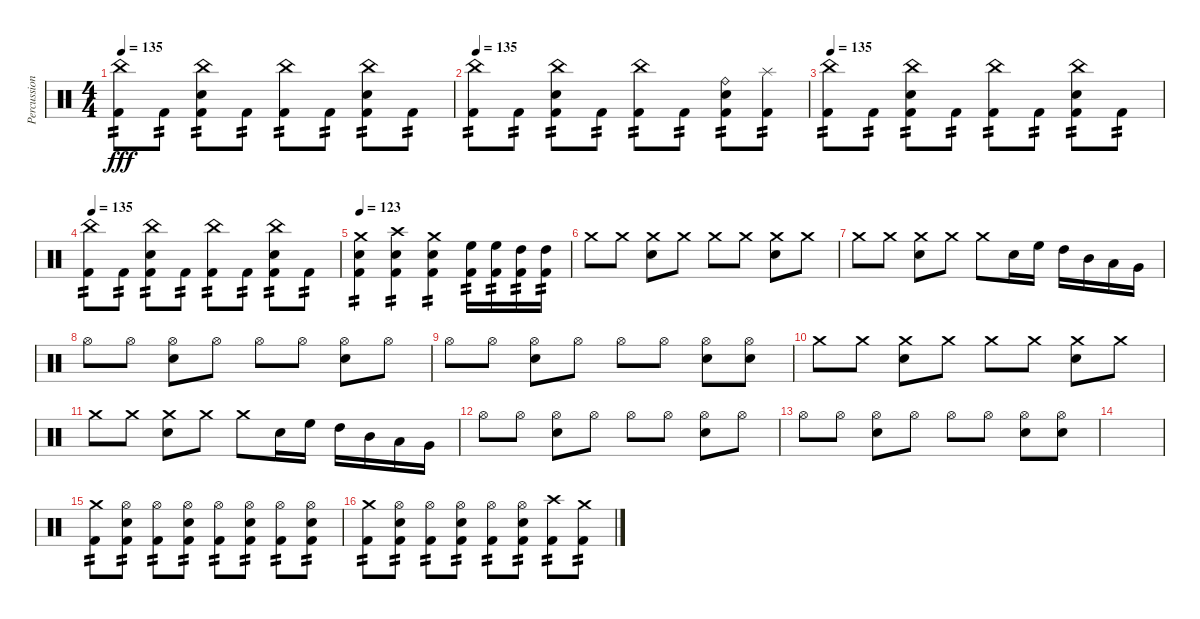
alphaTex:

\track ("Percussion" "Percussion") {solo instrument percussion}
\staff {score}
\articulation defaults
\ts (4 4)
\tempo 135
\clef neutral
\ks c
("China (hit)" "Kick (hit) 2").8{tp 2 dy fff} "Kick (hit) 2".8{tp 2} ("China (hit)" "Electric Snare (hit)" "Kick (hit) 2").8{tp 2} "Kick (hit) 2".8{tp 2} ("China (hit)" "Kick (hit) 2").8{tp 2} "Kick (hit) 2".8{tp 2} ("China (hit)" "Electric Snare (hit)" "Kick (hit) 2").8{tp 2} "Kick (hit) 2".8{tp 2} |
\tempo 135
("China (hit)" "Kick (hit) 2").8{tp 2} "Kick (hit) 2".8{tp 2} ("China (hit)" "Electric Snare (hit)" "Kick (hit) 2").8{tp 2} "Kick (hit) 2".8{tp 2} ("China (hit)" "Kick (hit) 2").8{tp 2} "Kick (hit) 2".8{tp 2} ("Ride (bell)" "Electric Snare (hit)" "Kick (hit) 2").8{tp 2} ("Splash (hit)" "Kick (hit) 2").8{tp 2} |
\tempo 135
("China (hit)" "Kick (hit) 2").8{tp 2} "Kick (hit) 2".8{tp 2} ("China (hit)" "Electric Snare (hit)" "Kick (hit) 2").8{tp 2} "Kick (hit) 2".8{tp 2} ("China (hit)" "Kick (hit) 2").8{tp 2} "Kick (hit) 2".8{tp 2} ("China (hit)" "Electric Snare (hit)" "Kick (hit) 2").8{tp 2} "Kick (hit) 2".8{tp 2} |
\tempo 135
("China (hit)" "Kick (hit) 2").8{tp 2} "Kick (hit) 2".8{tp 2} ("China (hit)" "Electric Snare (hit)" "Kick (hit) 2").8{tp 2} "Kick (hit) 2".8{tp 2} ("China (hit)" "Kick (hit) 2").8{tp 2} "Kick (hit) 2".8{tp 2} ("China (hit)" "Electric Snare (hit)" "Kick (hit) 2").8{tp 2} "Kick (hit) 2".8{tp 2} |
\tempo 123
("Electric Snare (hit)" "Crash medium (hit)" "Kick (hit) 2").4{tp 2} ("Electric Snare (hit)" "Crash high (hit)" "Kick (hit) 2").4{tp 2} ("Electric Snare (hit)" "Crash medium (hit)" "Kick (hit) 2").4{tp 2} ("High Floor Tom (hit)" "Kick (hit) 2").16{tp 2} ("High Floor Tom (hit)" "Kick (hit) 2").16{tp 2} ("High Tom (hit)" "Kick (hit) 2").16{tp 2} ("High Tom (hit)" "Kick (hit) 2").16{tp 2} |
"Crash medium (hit)".8 "Crash medium (hit)".8 ("Crash medium (hit)" "Electric Snare (hit)").8 "Crash medium (hit)".8 "Crash medium (hit)".8 "Crash medium (hit)".8 ("Crash medium (hit)" "Electric Snare (hit)").8 "Crash medium (hit)".8 |
"Crash medium (hit)".8 "Crash medium (hit)".8 ("Crash medium (hit)" "Electric Snare (hit)").8 "Crash medium (hit)".8 "Crash medium (hit)".8 "Electric Snare (hit)".16 "High Floor Tom (hit)".16 "High Tom (hit)".16 "Mid Tom (hit)".16 "Low Tom (hit)".16 "Very Low Tom (hit)".16 |
"Hi-Hat (open)".8 "Hi-Hat (open)".8 ("Hi-Hat (open)" "Electric Snare (hit)").8 "Hi-Hat (open)".8 "Hi-Hat (open)".8 "Hi-Hat (open)".8 ("Hi-Hat (open)" "Electric Snare (hit)").8 "Hi-Hat (open)".8 |
"Hi-Hat (open)".8 "Hi-Hat (open)".8 ("Hi-Hat (open)" "Electric Snare (hit)").8 "Hi-Hat (open)".8 "Hi-Hat (open)".8 "Hi-Hat (open)".8 ("Hi-Hat (open)" "Electric Snare (hit)").8 ("Hi-Hat (open)" "Electric Snare (hit)").8 |
"Crash medium (hit)".8 "Crash medium (hit)".8 ("Crash medium (hit)" "Electric Snare (hit)").8 "Crash medium (hit)".8 "Crash medium (hit)".8 "Crash medium (hit)".8 ("Crash medium (hit)" "Electric Snare (hit)").8 "Crash medium (hit)".8 |
"Crash medium (hit)".8 "Crash medium (hit)".8 ("Crash medium (hit)" "Electric Snare (hit)").8 "Crash medium (hit)".8 "Crash medium (hit)".8 "Electric Snare (hit)".16 "High Floor Tom (hit)".16 "High Tom (hit)".16 "Mid Tom (hit)".16 "Low Tom (hit)".16 "Very Low Tom (hit)".16 |
"Hi-Hat (open)".8 "Hi-Hat (open)".8 ("Hi-Hat (open)" "Electric Snare (hit)").8 "Hi-Hat (open)".8 "Hi-Hat (open)".8 "Hi-Hat (open)".8 ("Hi-Hat (open)" "Electric Snare (hit)").8 "Hi-Hat (open)".8 |
"Hi-Hat (open)".8 "Hi-Hat (open)".8 ("Hi-Hat (open)" "Electric Snare (hit)").8 "Hi-Hat (open)".8 "Hi-Hat (open)".8 "Hi-Hat (open)".8 ("Hi-Hat (open)" "Electric Snare (hit)").8 ("Hi-Hat (open)" "Electric Snare (hit)").8 |
|
("Crash medium (hit)" "Kick (hit) 2").8{tp 2} ("Hi-Hat (open)" "Electric Snare (hit)" "Kick (hit) 2").8{tp 2} ("Hi-Hat (open)" "Kick (hit) 2").8{tp 2} ("Hi-Hat (open)" "Electric Snare (hit)" "Kick (hit) 2").8{tp 2} ("Hi-Hat (open)" "Kick (hit) 2").8{tp 2} ("Hi-Hat (open)" "Electric Snare (hit)" "Kick (hit) 2").8{tp 2} ("Hi-Hat (open)" "Kick (hit) 2").8{tp 2} ("Hi-Hat (open)" "Electric Snare (hit)" "Kick (hit) 2").8{tp 2} |
("Crash medium (hit)" "Kick (hit) 2").8{tp 2} ("Hi-Hat (open)" "Electric Snare (hit)" "Kick (hit) 2").8{tp 2} ("Hi-Hat (open)" "Kick (hit) 2").8{tp 2} ("Hi-Hat (open)" "Electric Snare (hit)" "Kick (hit) 2").8{tp 2} ("Hi-Hat (open)" "Kick (hit) 2").8{tp 2} ("Hi-Hat (open)" "Electric Snare (hit)" "Kick (hit) 2").8{tp 2} ("Crash high (hit)" "Kick (hit) 2").8{tp 2} ("Crash medium (hit)" "Kick (hit) 2").8{tp 2}
